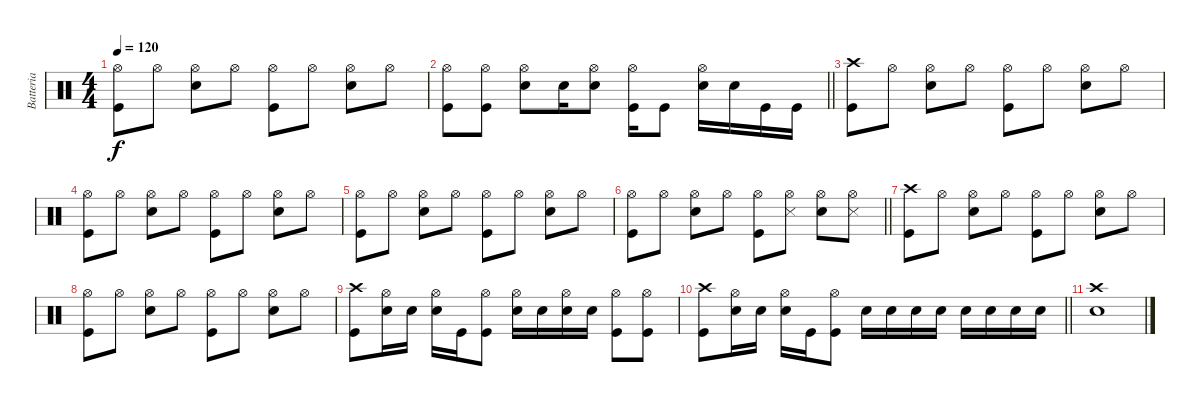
\track ("Batteria" "Batteria") {instrument percussion}
\staff {score}
\articulation defaults
\ts (4 4)
\tempo 120
\clef neutral
\ks c
("Kick (hit)" "Hi-Hat (open)").8{dy f} "Hi-Hat (open)".8 ("Snare (hit) 2" "Hi-Hat (open)").8 "Hi-Hat (open)".8 ("Kick (hit)" "Hi-Hat (open)").8 "Hi-Hat (open)".8 ("Snare (hit) 2" "Hi-Hat (open)").8 "Hi-Hat (open)".8 |
\barLineRight lightlight
("Kick (hit)" "Hi-Hat (open)").8 ("Kick (hit)" "Hi-Hat (open)").8 ("Snare (hit) 2" "Hi-Hat (open)").8 "Snare (hit) 2".16 ("Snare (hit) 2" "Hi-Hat (open)").8 ("Kick (hit)" "Hi-Hat (open)").16 "Kick (hit)".8 ("Snare (hit) 2" "Hi-Hat (open)").16 "Snare (hit) 2".16 "Kick (hit)".16 "Kick (hit)".16 |
("Kick (hit)" "Crash high (hit)").8 "Hi-Hat (open)".8 ("Snare (hit) 2" "Hi-Hat (open)").8 "Hi-Hat (open)".8 ("Kick (hit)" "Hi-Hat (open)").8 "Hi-Hat (open)".8 ("Snare (hit) 2" "Hi-Hat (open)").8 "Hi-Hat (open)".8 |
("Kick (hit)" "Hi-Hat (open)").8 "Hi-Hat (open)".8 ("Snare (hit) 2" "Hi-Hat (open)").8 "Hi-Hat (open)".8 ("Kick (hit)" "Hi-Hat (open)").8 "Hi-Hat (open)".8 ("Snare (hit) 2" "Hi-Hat (open)").8 "Hi-Hat (open)".8 |
("Kick (hit)" "Hi-Hat (open)").8 "Hi-Hat (open)".8 ("Snare (hit) 2" "Hi-Hat (open)").8 "Hi-Hat (open)".8 ("Kick (hit)" "Hi-Hat (open)").8 "Hi-Hat (open)".8 ("Snare (hit) 2" "Hi-Hat (open)").8 "Hi-Hat (open)".8 |
\barLineRight lightlight
("Kick (hit)" "Hi-Hat (open)").8 "Hi-Hat (open)".8 ("Snare (hit) 2" "Hi-Hat (open)").8 "Hi-Hat (open)".8 ("Kick (hit)" "Hi-Hat (open)").8 ("Hi-Hat (open)" "Snare (side stick) 3").8 ("Snare (hit) 2" "Hi-Hat (open)").8 ("Hi-Hat (open)" "Snare (side stick) 3").8 |
("Kick (hit)" "Crash high (hit)").8 "Hi-Hat (open)".8 ("Snare (hit) 2" "Hi-Hat (open)").8 "Hi-Hat (open)".8 ("Kick (hit)" "Hi-Hat (open)").8 "Hi-Hat (open)".8 ("Snare (hit) 2" "Hi-Hat (open)").8 "Hi-Hat (open)".8 |
("Kick (hit)" "Hi-Hat (open)").8 "Hi-Hat (open)".8 ("Snare (hit) 2" "Hi-Hat (open)").8 "Hi-Hat (open)".8 ("Kick (hit)" "Hi-Hat (open)").8 "Hi-Hat (open)".8 ("Snare (hit) 2" "Hi-Hat (open)").8 "Hi-Hat (open)".8 |
("Kick (hit)" "Crash high (hit)").8 ("Snare (hit) 2" "Hi-Hat (open)").16 "Snare (hit) 2".16 ("Snare (hit) 2" "Hi-Hat (open)").16 "Kick (hit)".16 ("Kick (hit)" "Hi-Hat (open)").8 ("Snare (hit) 2" "Hi-Hat (open)").16 "Snare (hit) 2".16 ("Snare (hit) 2" "Hi-Hat (open)").16 "Snare (hit) 2".16 ("Kick (hit)" "Hi-Hat (open)").8 ("Kick (hit)" "Hi-Hat (open)").8 |
\barLineRight lightlight
("Kick (hit)" "Crash high (hit)").8 ("Snare (hit) 2" "Hi-Hat (open)").16 "Snare (hit) 2".16 ("Snare (hit) 2" "Hi-Hat (open)").16 "Kick (hit)".16 ("Kick (hit)" "Hi-Hat (open)").8 "Snare (hit) 2".16 "Snare (hit) 2".16 "Snare (hit) 2".16 "Snare (hit) 2".16 "Snare (hit) 2".16 "Snare (hit) 2".16 "Snare (hit) 2".16 "Snare (hit) 2".16 |
("Snare (hit) 2" "Crash high (hit)").1
